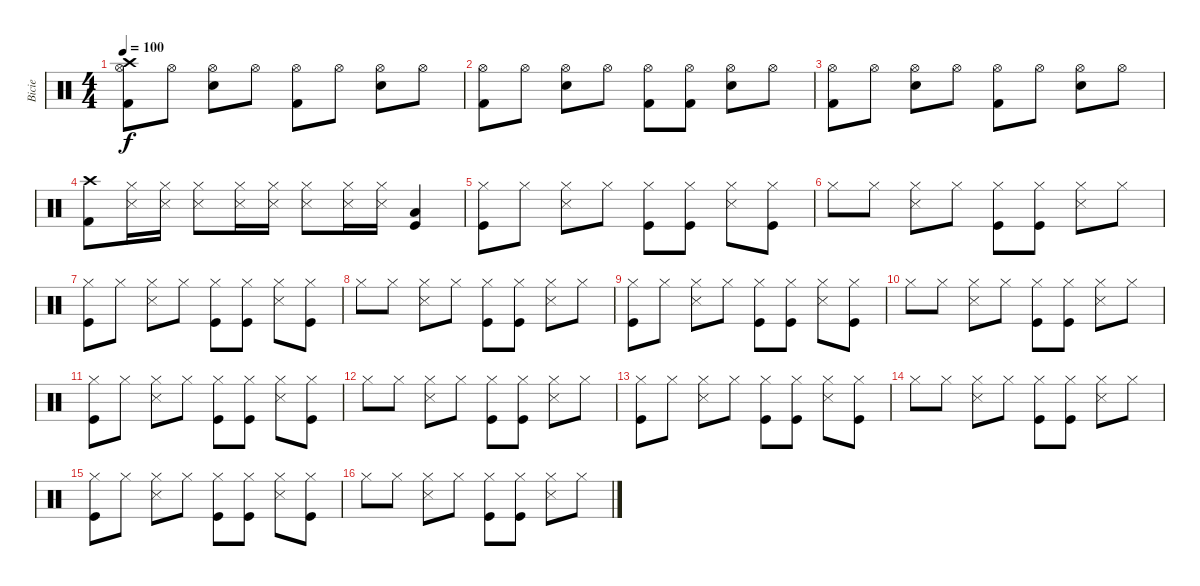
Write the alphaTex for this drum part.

\track ("Bicie" "Bicie") {instrument percussion}
\staff {score}
\articulation defaults
\ts (4 4)
\tempo 100
\clef neutral
\ks c
("Crash high (hit)" "Hi-Hat (open)" "Kick (hit) 2").8{dy f} "Hi-Hat (open)".8 ("Hi-Hat (open)" "Snare (hit) 2").8 "Hi-Hat (open)".8 ("Hi-Hat (open)" "Kick (hit) 2").8 "Hi-Hat (open)".8 ("Hi-Hat (open)" "Snare (hit) 2").8 "Hi-Hat (open)".8 |
("Hi-Hat (open)" "Kick (hit) 2").8 "Hi-Hat (open)".8 ("Hi-Hat (open)" "Snare (hit) 2").8 "Hi-Hat (open)".8 ("Hi-Hat (open)" "Kick (hit) 2").8 ("Hi-Hat (open)" "Kick (hit) 2").8 ("Hi-Hat (open)" "Snare (hit) 2").8 "Hi-Hat (open)".8 |
("Hi-Hat (open)" "Kick (hit) 2").8 "Hi-Hat (open)".8 ("Hi-Hat (open)" "Snare (hit) 2").8 "Hi-Hat (open)".8 ("Hi-Hat (open)" "Kick (hit) 2").8 "Hi-Hat (open)".8 ("Hi-Hat (open)" "Snare (hit) 2").8 "Hi-Hat (open)".8 |
("Crash high (hit)" "Kick (hit) 2").8 ("Hi-Hat (closed)" "Snare (side stick) 3").16 ("Hi-Hat (closed)" "Snare (side stick) 3").16 ("Hi-Hat (closed)" "Snare (side stick) 3").8 ("Hi-Hat (closed)" "Snare (side stick) 3").16 ("Hi-Hat (closed)" "Snare (side stick) 3").16 ("Hi-Hat (closed)" "Snare (side stick) 3").8 ("Hi-Hat (closed)" "Snare (side stick) 3").16 ("Hi-Hat (closed)" "Snare (side stick) 3").16 ("Low Floor Tom (hit)" "Kick (hit)").4 |
("Hi-Hat (closed)" "Kick (hit)").8 "Hi-Hat (closed)".8 ("Hi-Hat (closed)" "Snare (side stick) 3").8 "Hi-Hat (closed)".8 ("Hi-Hat (closed)" "Kick (hit)").8 ("Hi-Hat (closed)" "Kick (hit)").8 ("Hi-Hat (closed)" "Snare (side stick) 3").8 ("Hi-Hat (closed)" "Kick (hit)").8 |
"Hi-Hat (closed)".8 "Hi-Hat (closed)".8 ("Hi-Hat (closed)" "Snare (side stick) 3").8 "Hi-Hat (closed)".8 ("Hi-Hat (closed)" "Kick (hit)").8 ("Hi-Hat (closed)" "Kick (hit)").8 ("Hi-Hat (closed)" "Snare (side stick) 3").8 "Hi-Hat (closed)".8 |
("Hi-Hat (closed)" "Kick (hit)").8 "Hi-Hat (closed)".8 ("Hi-Hat (closed)" "Snare (side stick) 3").8 "Hi-Hat (closed)".8 ("Hi-Hat (closed)" "Kick (hit)").8 ("Hi-Hat (closed)" "Kick (hit)").8 ("Hi-Hat (closed)" "Snare (side stick) 3").8 ("Hi-Hat (closed)" "Kick (hit)").8 |
"Hi-Hat (closed)".8 "Hi-Hat (closed)".8 ("Hi-Hat (closed)" "Snare (side stick) 3").8 "Hi-Hat (closed)".8 ("Hi-Hat (closed)" "Kick (hit)").8 ("Hi-Hat (closed)" "Kick (hit)").8 ("Hi-Hat (closed)" "Snare (side stick) 3").8 "Hi-Hat (closed)".8 |
("Hi-Hat (closed)" "Kick (hit)").8 "Hi-Hat (closed)".8 ("Hi-Hat (closed)" "Snare (side stick) 3").8 "Hi-Hat (closed)".8 ("Hi-Hat (closed)" "Kick (hit)").8 ("Hi-Hat (closed)" "Kick (hit)").8 ("Hi-Hat (closed)" "Snare (side stick) 3").8 ("Hi-Hat (closed)" "Kick (hit)").8 |
"Hi-Hat (closed)".8 "Hi-Hat (closed)".8 ("Hi-Hat (closed)" "Snare (side stick) 3").8 "Hi-Hat (closed)".8 ("Hi-Hat (closed)" "Kick (hit)").8 ("Hi-Hat (closed)" "Kick (hit)").8 ("Hi-Hat (closed)" "Snare (side stick) 3").8 "Hi-Hat (closed)".8 |
("Hi-Hat (closed)" "Kick (hit)").8 "Hi-Hat (closed)".8 ("Hi-Hat (closed)" "Snare (side stick) 3").8 "Hi-Hat (closed)".8 ("Hi-Hat (closed)" "Kick (hit)").8 ("Hi-Hat (closed)" "Kick (hit)").8 ("Hi-Hat (closed)" "Snare (side stick) 3").8 ("Hi-Hat (closed)" "Kick (hit)").8 |
"Hi-Hat (closed)".8 "Hi-Hat (closed)".8 ("Hi-Hat (closed)" "Snare (side stick) 3").8 "Hi-Hat (closed)".8 ("Hi-Hat (closed)" "Kick (hit)").8 ("Hi-Hat (closed)" "Kick (hit)").8 ("Hi-Hat (closed)" "Snare (side stick) 3").8 "Hi-Hat (closed)".8 |
("Hi-Hat (closed)" "Kick (hit)").8 "Hi-Hat (closed)".8 ("Hi-Hat (closed)" "Snare (side stick) 3").8 "Hi-Hat (closed)".8 ("Hi-Hat (closed)" "Kick (hit)").8 ("Hi-Hat (closed)" "Kick (hit)").8 ("Hi-Hat (closed)" "Snare (side stick) 3").8 ("Hi-Hat (closed)" "Kick (hit)").8 |
"Hi-Hat (closed)".8 "Hi-Hat (closed)".8 ("Hi-Hat (closed)" "Snare (side stick) 3").8 "Hi-Hat (closed)".8 ("Hi-Hat (closed)" "Kick (hit)").8 ("Hi-Hat (closed)" "Kick (hit)").8 ("Hi-Hat (closed)" "Snare (side stick) 3").8 "Hi-Hat (closed)".8 |
("Hi-Hat (closed)" "Kick (hit)").8 "Hi-Hat (closed)".8 ("Hi-Hat (closed)" "Snare (side stick) 3").8 "Hi-Hat (closed)".8 ("Hi-Hat (closed)" "Kick (hit)").8 ("Hi-Hat (closed)" "Kick (hit)").8 ("Hi-Hat (closed)" "Snare (side stick) 3").8 ("Hi-Hat (closed)" "Kick (hit)").8 |
"Hi-Hat (closed)".8 "Hi-Hat (closed)".8 ("Hi-Hat (closed)" "Snare (side stick) 3").8 "Hi-Hat (closed)".8 ("Hi-Hat (closed)" "Kick (hit)").8 ("Hi-Hat (closed)" "Kick (hit)").8 ("Hi-Hat (closed)" "Snare (side stick) 3").8 "Hi-Hat (closed)".8
